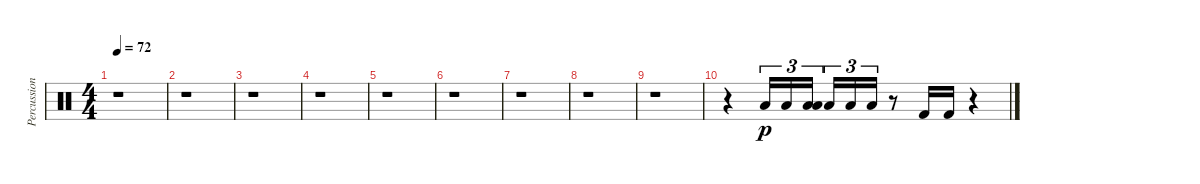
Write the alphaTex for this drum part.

\track ("Percussion" "Percussion") {instrument percussion}
\staff {score}
\articulation defaults
\ts (4 4)
\tempo 72
\clef neutral
\ks c
r.1{dy f} |
r.1 |
r.1 |
r.1 |
r.1 |
r.1 |
r.1 |
r.1 |
r.1 |
r.4 "Low Tom (hit)".16{tu (3 2) dy p} "Low Tom (hit)".16{tu (3 2)} ("Low Tom (hit)" "Low Tom (hit)").16{tu (3 2)} "Low Tom (hit)".16{tu (3 2)} "Low Tom (hit)".16{tu (3 2)} "Low Tom (hit)".16{tu (3 2)} r.8 "Kick (hit) 2".16 "Kick (hit) 2".16 r.4
